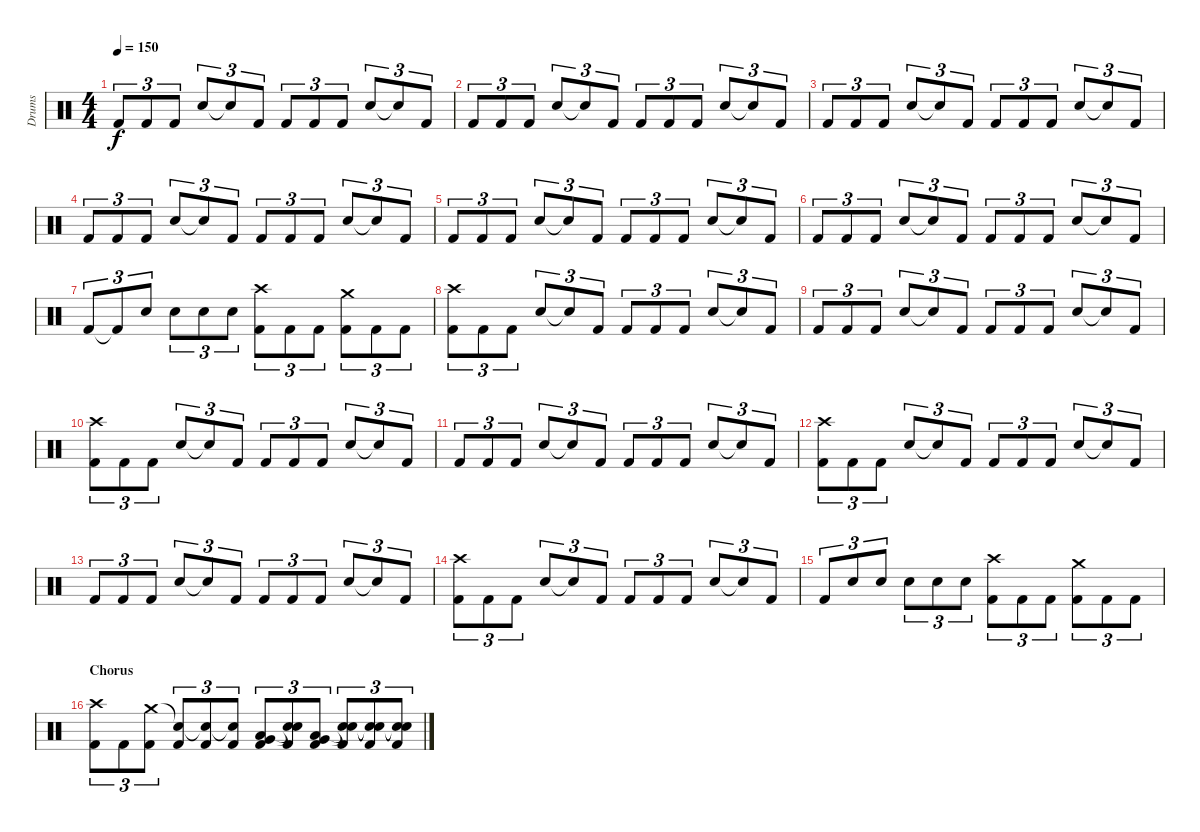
\track ("Drums" "Drums") {instrument percussion}
\staff {score}
\articulation defaults
\ts (4 4)
\tempo 150
\clef neutral
\ks c "Kick (hit) 2".8{tu (3 2) dy f} "Kick (hit) 2".8{tu (3 2)} "Kick (hit) 2".8{tu (3 2)} "Electric Snare (hit)".8{tu (3 2)} "Snare (hit)"{t}.8{tu (3 2)} "Kick (hit) 2".8{tu (3 2)} "Kick (hit) 2".8{tu (3 2)} "Kick (hit) 2".8{tu (3 2)} "Kick (hit) 2".8{tu (3 2)} "Electric Snare (hit)".8{tu (3 2)} "Snare (hit)"{t}.8{tu (3 2)} "Kick (hit) 2".8{tu (3 2)}
|
"Kick (hit) 2".8{tu (3 2)} "Kick (hit) 2".8{tu (3 2)} "Kick (hit) 2".8{tu (3 2)} "Electric Snare (hit)".8{tu (3 2)} "Snare (hit)"{t}.8{tu (3 2)} "Kick (hit) 2".8{tu (3 2)} "Kick (hit) 2".8{tu (3 2)} "Kick (hit) 2".8{tu (3 2)} "Kick (hit) 2".8{tu (3 2)} "Electric Snare (hit)".8{tu (3 2)} "Snare (hit)"{t}.8{tu (3 2)} "Kick (hit) 2".8{tu (3 2)} |
"Kick (hit) 2".8{tu (3 2)} "Kick (hit) 2".8{tu (3 2)} "Kick (hit) 2".8{tu (3 2)} "Electric Snare (hit)".8{tu (3 2)} "Snare (hit)"{t}.8{tu (3 2)} "Kick (hit) 2".8{tu (3 2)} "Kick (hit) 2".8{tu (3 2)} "Kick (hit) 2".8{tu (3 2)} "Kick (hit) 2".8{tu (3 2)} "Electric Snare (hit)".8{tu (3 2)} "Snare (hit)"{t}.8{tu (3 2)} "Kick (hit) 2".8{tu (3 2)} |
"Kick (hit) 2".8{tu (3 2)} "Kick (hit) 2".8{tu (3 2)} "Kick (hit) 2".8{tu (3 2)} "Electric Snare (hit)".8{tu (3 2)} "Snare (hit)"{t}.8{tu (3 2)} "Kick (hit) 2".8{tu (3 2)} "Kick (hit) 2".8{tu (3 2)} "Kick (hit) 2".8{tu (3 2)} "Kick (hit) 2".8{tu (3 2)} "Electric Snare (hit)".8{tu (3 2)} "Snare (hit)"{t}.8{tu (3 2)} "Kick (hit) 2".8{tu (3 2)} |
"Kick (hit) 2".8{tu (3 2)} "Kick (hit) 2".8{tu (3 2)} "Kick (hit) 2".8{tu (3 2)} "Electric Snare (hit)".8{tu (3 2)} "Snare (hit)"{t}.8{tu (3 2)} "Kick (hit) 2".8{tu (3 2)} "Kick (hit) 2".8{tu (3 2)} "Kick (hit) 2".8{tu (3 2)} "Kick (hit) 2".8{tu (3 2)} "Electric Snare (hit)".8{tu (3 2)} "Snare (hit)"{t}.8{tu (3 2)} "Kick (hit) 2".8{tu (3 2)} |
"Kick (hit) 2".8{tu (3 2)} "Kick (hit) 2".8{tu (3 2)} "Kick (hit) 2".8{tu (3 2)} "Electric Snare (hit)".8{tu (3 2)} "Snare (hit)"{t}.8{tu (3 2)} "Kick (hit) 2".8{tu (3 2)} "Kick (hit) 2".8{tu (3 2)} "Kick (hit) 2".8{tu (3 2)} "Kick (hit) 2".8{tu (3 2)} "Electric Snare (hit)".8{tu (3 2)} "Snare (hit)"{t}.8{tu (3 2)} "Kick (hit) 2".8{tu (3 2)} |
"Kick (hit) 2".8{tu (3 2)} "Kick (hit) 2"{t}.8{tu (3 2)} "Electric Snare (hit)".8{tu (3 2)} "Electric Snare (hit)".8{tu (3 2)} "Electric Snare (hit)".8{tu (3 2)} "Electric Snare (hit)".8{tu (3 2)} ("Crash high (hit)" "Kick (hit) 2").8{tu (3 2)} "Kick (hit) 2".8{tu (3 2)} "Kick (hit) 2".8{tu (3 2)} ("Crash medium (hit)" "Kick (hit) 2").8{tu (3 2)} "Kick (hit) 2".8{tu (3 2)} "Kick (hit) 2".8{tu (3 2)} |
("Crash high (hit)" "Kick (hit) 2").8{tu (3 2)} "Kick (hit) 2".8{tu (3 2)} "Kick (hit) 2".8{tu (3 2)} "Electric Snare (hit)".8{tu (3 2)} "Snare (hit)"{t}.8{tu (3 2)} "Kick (hit) 2".8{tu (3 2)} "Kick (hit) 2".8{tu (3 2)} "Kick (hit) 2".8{tu (3 2)} "Kick (hit) 2".8{tu (3 2)} "Electric Snare (hit)".8{tu (3 2)} "Snare (hit)"{t}.8{tu (3 2)} "Kick (hit) 2".8{tu (3 2)} |
"Kick (hit) 2".8{tu (3 2)} "Kick (hit) 2".8{tu (3 2)} "Kick (hit) 2".8{tu (3 2)} "Electric Snare (hit)".8{tu (3 2)} "Snare (hit)"{t}.8{tu (3 2)} "Kick (hit) 2".8{tu (3 2)} "Kick (hit) 2".8{tu (3 2)} "Kick (hit) 2".8{tu (3 2)} "Kick (hit) 2".8{tu (3 2)} "Electric Snare (hit)".8{tu (3 2)} "Snare (hit)"{t}.8{tu (3 2)} "Kick (hit) 2".8{tu (3 2)} |
("Crash high (hit)" "Kick (hit) 2").8{tu (3 2)} "Kick (hit) 2".8{tu (3 2)} "Kick (hit) 2".8{tu (3 2)} "Electric Snare (hit)".8{tu (3 2)} "Snare (hit)"{t}.8{tu (3 2)} "Kick (hit) 2".8{tu (3 2)} "Kick (hit) 2".8{tu (3 2)} "Kick (hit) 2".8{tu (3 2)} "Kick (hit) 2".8{tu (3 2)} "Electric Snare (hit)".8{tu (3 2)} "Snare (hit)"{t}.8{tu (3 2)} "Kick (hit) 2".8{tu (3 2)} |
"Kick (hit) 2".8{tu (3 2)} "Kick (hit) 2".8{tu (3 2)} "Kick (hit) 2".8{tu (3 2)} "Electric Snare (hit)".8{tu (3 2)} "Snare (hit)"{t}.8{tu (3 2)} "Kick (hit) 2".8{tu (3 2)} "Kick (hit) 2".8{tu (3 2)} "Kick (hit) 2".8{tu (3 2)} "Kick (hit) 2".8{tu (3 2)} "Electric Snare (hit)".8{tu (3 2)} "Snare (hit)"{t}.8{tu (3 2)} "Kick (hit) 2".8{tu (3 2)} |
("Crash high (hit)" "Kick (hit) 2").8{tu (3 2)} "Kick (hit) 2".8{tu (3 2)} "Kick (hit) 2".8{tu (3 2)} "Electric Snare (hit)".8{tu (3 2)} "Snare (hit)"{t}.8{tu (3 2)} "Kick (hit) 2".8{tu (3 2)} "Kick (hit) 2".8{tu (3 2)} "Kick (hit) 2".8{tu (3 2)} "Kick (hit) 2".8{tu (3 2)} "Electric Snare (hit)".8{tu (3 2)} "Snare (hit)"{t}.8{tu (3 2)} "Kick (hit) 2".8{tu (3 2)} |
"Kick (hit) 2".8{tu (3 2)} "Kick (hit) 2".8{tu (3 2)} "Kick (hit) 2".8{tu (3 2)} "Electric Snare (hit)".8{tu (3 2)} "Snare (hit)"{t}.8{tu (3 2)} "Kick (hit) 2".8{tu (3 2)} "Kick (hit) 2".8{tu (3 2)} "Kick (hit) 2".8{tu (3 2)} "Kick (hit) 2".8{tu (3 2)} "Electric Snare (hit)".8{tu (3 2)} "Snare (hit)"{t}.8{tu (3 2)} "Kick (hit) 2".8{tu (3 2)} |
("Crash high (hit)" "Kick (hit) 2").8{tu (3 2)} "Kick (hit) 2".8{tu (3 2)} "Kick (hit) 2".8{tu (3 2)} "Electric Snare (hit)".8{tu (3 2)} "Snare (hit)"{t}.8{tu (3 2)} "Kick (hit) 2".8{tu (3 2)} "Kick (hit) 2".8{tu (3 2)} "Kick (hit) 2".8{tu (3 2)} "Kick (hit) 2".8{tu (3 2)} "Electric Snare (hit)".8{tu (3 2)} "Snare (hit)"{t}.8{tu (3 2)} "Kick (hit) 2".8{tu (3 2)} |
"Kick (hit) 2".8{tu (3 2)} "Electric Snare (hit)".8{tu (3 2)} "Electric Snare (hit)".8{tu (3 2)} "Electric Snare (hit)".8{tu (3 2)} "Electric Snare (hit)".8{tu (3 2)} "Electric Snare (hit)".8{tu (3 2)} ("Crash high (hit)" "Kick (hit) 2").8{tu (3 2)} "Kick (hit) 2".8{tu (3 2)} "Kick (hit) 2".8{tu (3 2)} ("Crash medium (hit)" "Kick (hit) 2").8{tu (3 2)} "Kick (hit) 2".8{tu (3 2)} "Kick (hit) 2".8{tu (3 2)} |
\section ("" "Chorus")
("Crash high (hit)" "Kick (hit) 2").8{tu (3 2)} "Kick (hit) 2".8{tu (3 2)} ("Crash medium (hit)" "Kick (hit) 2").8{tu (3 2)} ("Snare (hit)"{t} "Kick (hit) 2").8{tu (3 2)} ("Snare (hit)"{t} "Kick (hit) 2").8{tu (3 2)} ("Snare (hit)"{t} "Kick (hit) 2").8{tu (3 2)} ("Low Tom (hit)" "Very Low Tom (hit)" "Kick (hit) 2").8{tu (3 2)} ("Snare (hit)"{t} "Snare (hit)"{t} "Kick (hit) 2").8{tu (3 2)} ("Low Tom (hit)" "Very Low Tom (hit)" "Kick (hit) 2").8{tu (3 2)} ("Snare (hit)"{t} "Snare (hit)"{t} "Kick (hit) 2").8{tu (3 2)} ("Snare (hit)"{t} "Snare (hit)"{t} "Kick (hit) 2").8{tu (3 2)} ("Snare (hit)"{t} "Snare (hit)"{t} "Kick (hit) 2").8{tu (3 2)}
